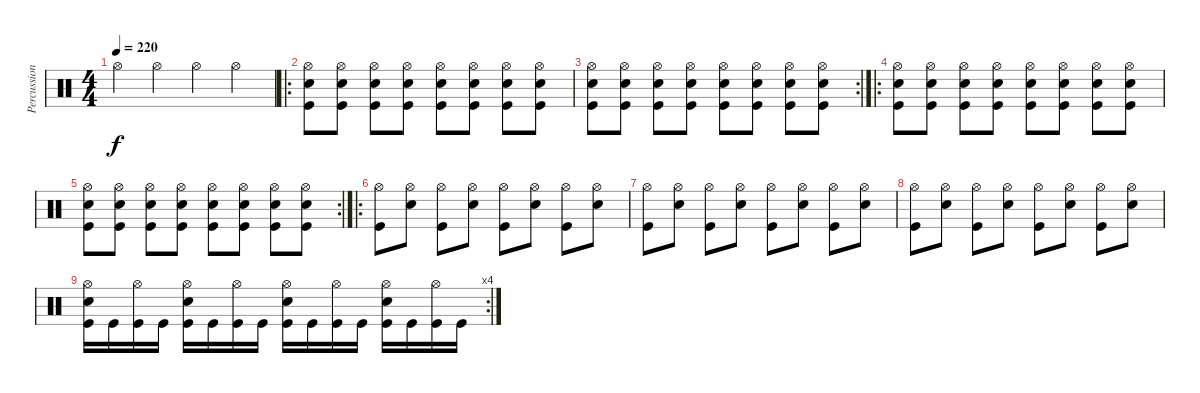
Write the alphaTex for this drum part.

\track ("Percussion" "Percussion") {instrument percussion}
\staff {score}
\articulation defaults
\ts (4 4)
\tempo 220
\clef neutral
\ks c "Hi-Hat (open)".4{dy f} "Hi-Hat (open)".4 "Hi-Hat (open)".4 "Hi-Hat (open)".4
|
\ro
("Hi-Hat (open)" "Snare (hit) 2" "Kick (hit)").8 ("Hi-Hat (open)" "Snare (hit) 2" "Kick (hit)").8 ("Hi-Hat (open)" "Snare (hit) 2" "Kick (hit)").8 ("Hi-Hat (open)" "Snare (hit) 2" "Kick (hit)").8 ("Hi-Hat (open)" "Snare (hit) 2" "Kick (hit)").8 ("Hi-Hat (open)" "Snare (hit) 2" "Kick (hit)").8 ("Hi-Hat (open)" "Snare (hit) 2" "Kick (hit)").8 ("Hi-Hat (open)" "Snare (hit) 2" "Kick (hit)").8 |
\rc 2
("Hi-Hat (open)" "Snare (hit) 2" "Kick (hit)").8 ("Hi-Hat (open)" "Snare (hit) 2" "Kick (hit)").8 ("Hi-Hat (open)" "Snare (hit) 2" "Kick (hit)").8 ("Hi-Hat (open)" "Snare (hit) 2" "Kick (hit)").8 ("Hi-Hat (open)" "Snare (hit) 2" "Kick (hit)").8 ("Hi-Hat (open)" "Snare (hit) 2" "Kick (hit)").8 ("Hi-Hat (open)" "Snare (hit) 2" "Kick (hit)").8 ("Hi-Hat (open)" "Snare (hit) 2" "Kick (hit)").8 |
\ro
("Hi-Hat (open)" "Snare (hit) 2" "Kick (hit)").8 ("Hi-Hat (open)" "Snare (hit) 2" "Kick (hit)").8 ("Hi-Hat (open)" "Snare (hit) 2" "Kick (hit)").8 ("Hi-Hat (open)" "Snare (hit) 2" "Kick (hit)").8 ("Hi-Hat (open)" "Snare (hit) 2" "Kick (hit)").8 ("Hi-Hat (open)" "Snare (hit) 2" "Kick (hit)").8 ("Hi-Hat (open)" "Snare (hit) 2" "Kick (hit)").8 ("Hi-Hat (open)" "Snare (hit) 2" "Kick (hit)").8 |
\rc 2
("Hi-Hat (open)" "Snare (hit) 2" "Kick (hit)").8 ("Hi-Hat (open)" "Snare (hit) 2" "Kick (hit)").8 ("Hi-Hat (open)" "Snare (hit) 2" "Kick (hit)").8 ("Hi-Hat (open)" "Snare (hit) 2" "Kick (hit)").8 ("Hi-Hat (open)" "Snare (hit) 2" "Kick (hit)").8 ("Hi-Hat (open)" "Snare (hit) 2" "Kick (hit)").8 ("Hi-Hat (open)" "Snare (hit) 2" "Kick (hit)").8 ("Hi-Hat (open)" "Snare (hit) 2" "Kick (hit)").8 |
\ro
("Hi-Hat (open)" "Kick (hit)").8 ("Hi-Hat (open)" "Snare (hit) 2").8 ("Hi-Hat (open)" "Kick (hit)").8 ("Hi-Hat (open)" "Snare (hit) 2").8 ("Hi-Hat (open)" "Kick (hit)").8 ("Hi-Hat (open)" "Snare (hit) 2").8 ("Hi-Hat (open)" "Kick (hit)").8 ("Hi-Hat (open)" "Snare (hit) 2").8 |
("Hi-Hat (open)" "Kick (hit)").8 ("Hi-Hat (open)" "Snare (hit) 2").8 ("Hi-Hat (open)" "Kick (hit)").8 ("Hi-Hat (open)" "Snare (hit) 2").8 ("Hi-Hat (open)" "Kick (hit)").8 ("Hi-Hat (open)" "Snare (hit) 2").8 ("Hi-Hat (open)" "Kick (hit)").8 ("Hi-Hat (open)" "Snare (hit) 2").8 |
("Hi-Hat (open)" "Kick (hit)").8 ("Hi-Hat (open)" "Snare (hit) 2").8 ("Hi-Hat (open)" "Kick (hit)").8 ("Hi-Hat (open)" "Snare (hit) 2").8 ("Hi-Hat (open)" "Kick (hit)").8 ("Hi-Hat (open)" "Snare (hit) 2").8 ("Hi-Hat (open)" "Kick (hit)").8 ("Hi-Hat (open)" "Snare (hit) 2").8 |
\rc 4
("Hi-Hat (open)" "Snare (hit) 2" "Kick (hit)").16 "Kick (hit)".16 ("Hi-Hat (open)" "Kick (hit)").16 "Kick (hit)".16 ("Hi-Hat (open)" "Snare (hit) 2" "Kick (hit)").16 "Kick (hit)".16 ("Hi-Hat (open)" "Kick (hit)").16 "Kick (hit)".16 ("Hi-Hat (open)" "Snare (hit) 2" "Kick (hit)").16 "Kick (hit)".16 ("Hi-Hat (open)" "Kick (hit)").16 "Kick (hit)".16 ("Hi-Hat (open)" "Snare (hit) 2" "Kick (hit)").16 "Kick (hit)".16 ("Hi-Hat (open)" "Kick (hit)").16 "Kick (hit)".16
